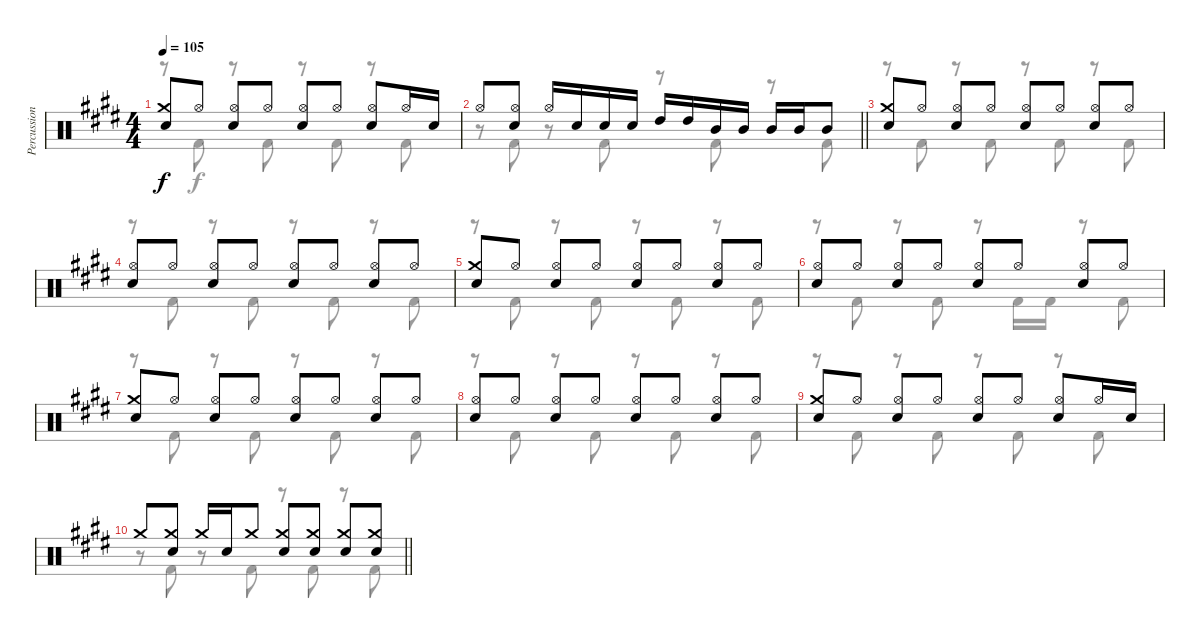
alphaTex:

\track ("Percussion" "Percussion") {instrument percussion}
\staff {score}
\articulation defaults
\voice
\ts (4 4)
\tempo 105
\clef neutral
\ks e
("Crash medium (hit)" "Snare (hit) 2").8{dy f} "Hi-Hat (open)".8 ("Hi-Hat (open)" "Snare (hit) 2").8 "Hi-Hat (open)".8 ("Hi-Hat (open)" "Snare (hit) 2").8 "Hi-Hat (open)".8 ("Hi-Hat (open)" "Snare (hit) 2").8 "Hi-Hat (open)".16 "Snare (hit) 2".16 |
\barLineRight lightlight "Hi-Hat (open)".8
("Hi-Hat (open)" "Snare (hit) 2").8 "Hi-Hat (open)".16 "Snare (hit) 2".16 "Snare (hit) 2".16 "Snare (hit) 2".16 "High Tom (hit)".16 "High Tom (hit)".16 "Mid Tom (hit)".16 "Mid Tom (hit)".16 "Mid Tom (hit)".16 "Mid Tom (hit)".16 "Mid Tom (hit)".8 |
("Crash medium (hit)" "Snare (hit) 2").8 "Hi-Hat (open)".8 ("Hi-Hat (open)" "Snare (hit) 2").8 "Hi-Hat (open)".8 ("Hi-Hat (open)" "Snare (hit) 2").8 "Hi-Hat (open)".8 ("Hi-Hat (open)" "Snare (hit) 2").8 "Hi-Hat (open)".8 |
("Hi-Hat (open)" "Snare (hit) 2").8 "Hi-Hat (open)".8 ("Hi-Hat (open)" "Snare (hit) 2").8 "Hi-Hat (open)".8 ("Hi-Hat (open)" "Snare (hit) 2").8 "Hi-Hat (open)".8 ("Hi-Hat (open)" "Snare (hit) 2").8 "Hi-Hat (open)".8 |
("Crash medium (hit)" "Snare (hit) 2").8 "Hi-Hat (open)".8 ("Hi-Hat (open)" "Snare (hit) 2").8 "Hi-Hat (open)".8 ("Hi-Hat (open)" "Snare (hit) 2").8 "Hi-Hat (open)".8 ("Hi-Hat (open)" "Snare (hit) 2").8 "Hi-Hat (open)".8 |
("Hi-Hat (open)" "Snare (hit) 2").8 "Hi-Hat (open)".8 ("Hi-Hat (open)" "Snare (hit) 2").8 "Hi-Hat (open)".8 ("Hi-Hat (open)" "Snare (hit) 2").8 "Hi-Hat (open)".8 ("Hi-Hat (open)" "Snare (hit) 2").8 "Hi-Hat (open)".8 |
("Crash medium (hit)" "Snare (hit) 2").8 "Hi-Hat (open)".8 ("Hi-Hat (open)" "Snare (hit) 2").8 "Hi-Hat (open)".8 ("Hi-Hat (open)" "Snare (hit) 2").8 "Hi-Hat (open)".8 ("Hi-Hat (open)" "Snare (hit) 2").8 "Hi-Hat (open)".8 |
("Hi-Hat (open)" "Snare (hit) 2").8 "Hi-Hat (open)".8 ("Hi-Hat (open)" "Snare (hit) 2").8 "Hi-Hat (open)".8 ("Hi-Hat (open)" "Snare (hit) 2").8 "Hi-Hat (open)".8 ("Hi-Hat (open)" "Snare (hit) 2").8 "Hi-Hat (open)".8 |
("Crash medium (hit)" "Snare (hit) 2").8 "Hi-Hat (open)".8 ("Hi-Hat (open)" "Snare (hit) 2").8 "Hi-Hat (open)".8 ("Hi-Hat (open)" "Snare (hit) 2").8 "Hi-Hat (open)".8 ("Hi-Hat (open)" "Snare (hit) 2").8 "Hi-Hat (open)".16 "Snare (hit) 2".16 |
\barLineRight lightlight "Crash medium (hit)".8
("Crash medium (hit)" "Snare (hit) 2").8 "Crash medium (hit)".16 "Snare (hit) 2".16 "Crash medium (hit)".8 ("Crash medium (hit)" "Snare (hit) 2").8 ("Crash medium (hit)" "Snare (hit) 2").8 ("Crash medium (hit)" "Snare (hit) 2").8 ("Crash medium (hit)" "Snare (hit) 2").8
\voice
\clef neutral
\ottava regular
\simile none
\ks e
r.8{dy f} "Kick (hit) 2".8 r.8 "Kick (hit) 2".8 r.8 "Kick (hit) 2".8 r.8 "Kick (hit) 2".8 |
\barLineRight lightlight
r.8 "Kick (hit) 2".8 r.8 "Kick (hit) 2".8 r.8 "Kick (hit) 2".8 r.8 "Kick (hit) 2".8 |
r.8 "Kick (hit) 2".8 r.8 "Kick (hit) 2".8 r.8 "Kick (hit) 2".8 r.8 "Kick (hit) 2".8 |
r.8 "Kick (hit) 2".8 r.8 "Kick (hit) 2".8 r.8 "Kick (hit) 2".8 r.8 "Kick (hit) 2".8 |
r.8 "Kick (hit) 2".8 r.8 "Kick (hit) 2".8 r.8 "Kick (hit) 2".8 r.8 "Kick (hit) 2".8 |
r.8 "Kick (hit) 2".8 r.8 "Kick (hit) 2".8 r.8 "Kick (hit) 2".16 "Kick (hit) 2".16 r.8 "Kick (hit) 2".8 |
r.8 "Kick (hit) 2".8 r.8 "Kick (hit) 2".8 r.8 "Kick (hit) 2".8 r.8 "Kick (hit) 2".8 |
r.8 "Kick (hit) 2".8 r.8 "Kick (hit) 2".8 r.8 "Kick (hit) 2".8 r.8 "Kick (hit) 2".8 |
r.8 "Kick (hit) 2".8 r.8 "Kick (hit) 2".8 r.8 "Kick (hit) 2".8 r.8 "Kick (hit) 2".8 |
\barLineRight lightlight
r.8 "Kick (hit) 2".8 r.8 "Kick (hit) 2".8 r.8 "Kick (hit) 2".8 r.8 "Kick (hit) 2".8
